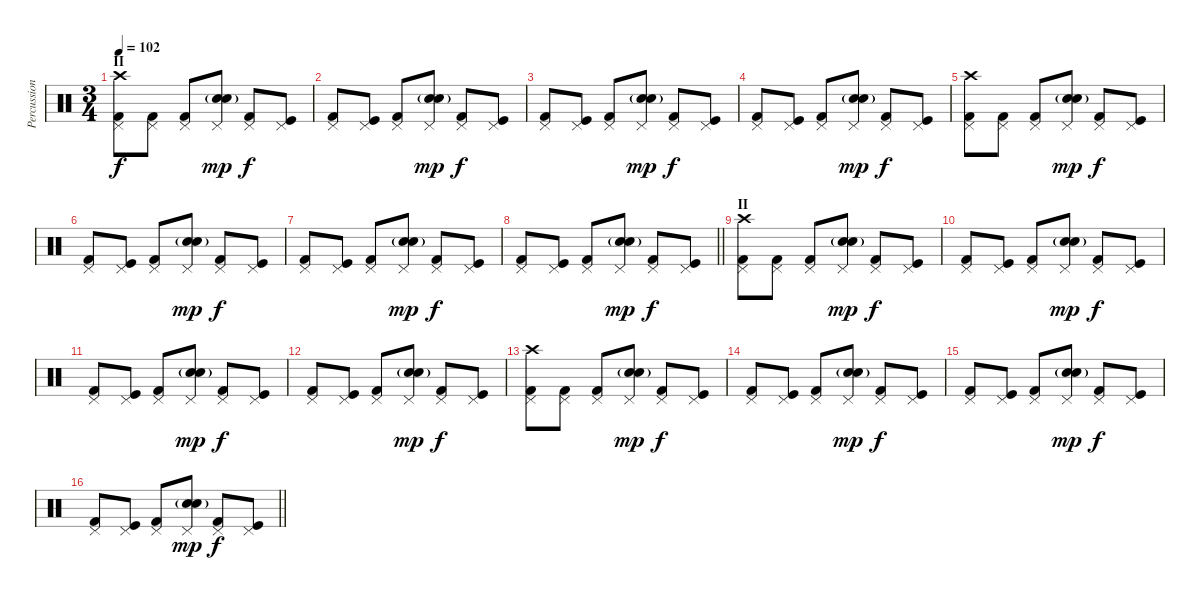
\track ("Percussion" "Percussion") {instrument percussion}
\staff {score}
\articulation defaults
\ts (3 4)
\section ("" "II")
\tempo 102
\clef neutral
\ks c
("Crash high (hit)" "Kick (hit) 2" "Pedal Hi-Hat (hit)").8{dy f} ("Kick (hit) 2" "Pedal Hi-Hat (hit)").8 ("Kick (hit) 2" "Pedal Hi-Hat (hit)").8 ("Electric Snare (hit)" "Snare (hit) 2"{g} "Pedal Hi-Hat (hit)").8{dy mp} ("Kick (hit) 2" "Pedal Hi-Hat (hit)").8{dy f} ("Kick (hit)" "Pedal Hi-Hat (hit)").8 |
("Kick (hit) 2" "Pedal Hi-Hat (hit)").8 ("Kick (hit)" "Pedal Hi-Hat (hit)").8 ("Kick (hit) 2" "Pedal Hi-Hat (hit)").8 ("Electric Snare (hit)" "Snare (hit) 2"{g} "Pedal Hi-Hat (hit)").8{dy mp} ("Kick (hit) 2" "Pedal Hi-Hat (hit)").8{dy f} ("Kick (hit)" "Pedal Hi-Hat (hit)").8 |
("Kick (hit) 2" "Pedal Hi-Hat (hit)").8 ("Kick (hit)" "Pedal Hi-Hat (hit)").8 ("Kick (hit) 2" "Pedal Hi-Hat (hit)").8 ("Electric Snare (hit)" "Snare (hit) 2"{g} "Pedal Hi-Hat (hit)").8{dy mp} ("Kick (hit) 2" "Pedal Hi-Hat (hit)").8{dy f} ("Kick (hit)" "Pedal Hi-Hat (hit)").8 |
("Kick (hit) 2" "Pedal Hi-Hat (hit)").8 ("Kick (hit)" "Pedal Hi-Hat (hit)").8 ("Kick (hit) 2" "Pedal Hi-Hat (hit)").8 ("Electric Snare (hit)" "Snare (hit) 2"{g} "Pedal Hi-Hat (hit)").8{dy mp} ("Kick (hit) 2" "Pedal Hi-Hat (hit)").8{dy f} ("Kick (hit)" "Pedal Hi-Hat (hit)").8 |
("Crash high (hit)" "Kick (hit) 2" "Pedal Hi-Hat (hit)").8 ("Kick (hit) 2" "Pedal Hi-Hat (hit)").8 ("Kick (hit) 2" "Pedal Hi-Hat (hit)").8 ("Electric Snare (hit)" "Snare (hit) 2"{g} "Pedal Hi-Hat (hit)").8{dy mp} ("Kick (hit) 2" "Pedal Hi-Hat (hit)").8{dy f} ("Kick (hit)" "Pedal Hi-Hat (hit)").8 |
("Kick (hit) 2" "Pedal Hi-Hat (hit)").8 ("Kick (hit)" "Pedal Hi-Hat (hit)").8 ("Kick (hit) 2" "Pedal Hi-Hat (hit)").8 ("Electric Snare (hit)" "Snare (hit) 2"{g} "Pedal Hi-Hat (hit)").8{dy mp} ("Kick (hit) 2" "Pedal Hi-Hat (hit)").8{dy f} ("Kick (hit)" "Pedal Hi-Hat (hit)").8 |
("Kick (hit) 2" "Pedal Hi-Hat (hit)").8 ("Kick (hit)" "Pedal Hi-Hat (hit)").8 ("Kick (hit) 2" "Pedal Hi-Hat (hit)").8 ("Electric Snare (hit)" "Snare (hit) 2"{g} "Pedal Hi-Hat (hit)").8{dy mp} ("Kick (hit) 2" "Pedal Hi-Hat (hit)").8{dy f} ("Kick (hit)" "Pedal Hi-Hat (hit)").8 |
\barLineRight lightlight
("Kick (hit) 2" "Pedal Hi-Hat (hit)").8 ("Kick (hit)" "Pedal Hi-Hat (hit)").8 ("Kick (hit) 2" "Pedal Hi-Hat (hit)").8 ("Electric Snare (hit)" "Snare (hit) 2"{g} "Pedal Hi-Hat (hit)").8{dy mp} ("Kick (hit) 2" "Pedal Hi-Hat (hit)").8{dy f} ("Kick (hit)" "Pedal Hi-Hat (hit)").8 |
\section ("" "II")
("Crash high (hit)" "Kick (hit) 2" "Pedal Hi-Hat (hit)").8 ("Kick (hit) 2" "Pedal Hi-Hat (hit)").8 ("Kick (hit) 2" "Pedal Hi-Hat (hit)").8 ("Electric Snare (hit)" "Snare (hit) 2"{g} "Pedal Hi-Hat (hit)").8{dy mp} ("Kick (hit) 2" "Pedal Hi-Hat (hit)").8{dy f} ("Kick (hit)" "Pedal Hi-Hat (hit)").8 |
("Kick (hit) 2" "Pedal Hi-Hat (hit)").8 ("Kick (hit)" "Pedal Hi-Hat (hit)").8 ("Kick (hit) 2" "Pedal Hi-Hat (hit)").8 ("Electric Snare (hit)" "Snare (hit) 2"{g} "Pedal Hi-Hat (hit)").8{dy mp} ("Kick (hit) 2" "Pedal Hi-Hat (hit)").8{dy f} ("Kick (hit)" "Pedal Hi-Hat (hit)").8 |
("Kick (hit) 2" "Pedal Hi-Hat (hit)").8 ("Kick (hit)" "Pedal Hi-Hat (hit)").8 ("Kick (hit) 2" "Pedal Hi-Hat (hit)").8 ("Electric Snare (hit)" "Snare (hit) 2"{g} "Pedal Hi-Hat (hit)").8{dy mp} ("Kick (hit) 2" "Pedal Hi-Hat (hit)").8{dy f} ("Kick (hit)" "Pedal Hi-Hat (hit)").8 |
("Kick (hit) 2" "Pedal Hi-Hat (hit)").8 ("Kick (hit)" "Pedal Hi-Hat (hit)").8 ("Kick (hit) 2" "Pedal Hi-Hat (hit)").8 ("Electric Snare (hit)" "Snare (hit) 2"{g} "Pedal Hi-Hat (hit)").8{dy mp} ("Kick (hit) 2" "Pedal Hi-Hat (hit)").8{dy f} ("Kick (hit)" "Pedal Hi-Hat (hit)").8 |
("Crash high (hit)" "Kick (hit) 2" "Pedal Hi-Hat (hit)").8 ("Kick (hit) 2" "Pedal Hi-Hat (hit)").8 ("Kick (hit) 2" "Pedal Hi-Hat (hit)").8 ("Electric Snare (hit)" "Snare (hit) 2"{g} "Pedal Hi-Hat (hit)").8{dy mp} ("Kick (hit) 2" "Pedal Hi-Hat (hit)").8{dy f} ("Kick (hit)" "Pedal Hi-Hat (hit)").8 |
("Kick (hit) 2" "Pedal Hi-Hat (hit)").8 ("Kick (hit)" "Pedal Hi-Hat (hit)").8 ("Kick (hit) 2" "Pedal Hi-Hat (hit)").8 ("Electric Snare (hit)" "Snare (hit) 2"{g} "Pedal Hi-Hat (hit)").8{dy mp} ("Kick (hit) 2" "Pedal Hi-Hat (hit)").8{dy f} ("Kick (hit)" "Pedal Hi-Hat (hit)").8 |
("Kick (hit) 2" "Pedal Hi-Hat (hit)").8 ("Kick (hit)" "Pedal Hi-Hat (hit)").8 ("Kick (hit) 2" "Pedal Hi-Hat (hit)").8 ("Electric Snare (hit)" "Snare (hit) 2"{g} "Pedal Hi-Hat (hit)").8{dy mp} ("Kick (hit) 2" "Pedal Hi-Hat (hit)").8{dy f} ("Kick (hit)" "Pedal Hi-Hat (hit)").8 |
\barLineRight lightlight
("Kick (hit) 2" "Pedal Hi-Hat (hit)").8 ("Kick (hit)" "Pedal Hi-Hat (hit)").8 ("Kick (hit) 2" "Pedal Hi-Hat (hit)").8 ("Electric Snare (hit)" "Snare (hit) 2"{g} "Pedal Hi-Hat (hit)").8{dy mp} ("Kick (hit) 2" "Pedal Hi-Hat (hit)").8{dy f} ("Kick (hit)" "Pedal Hi-Hat (hit)").8
